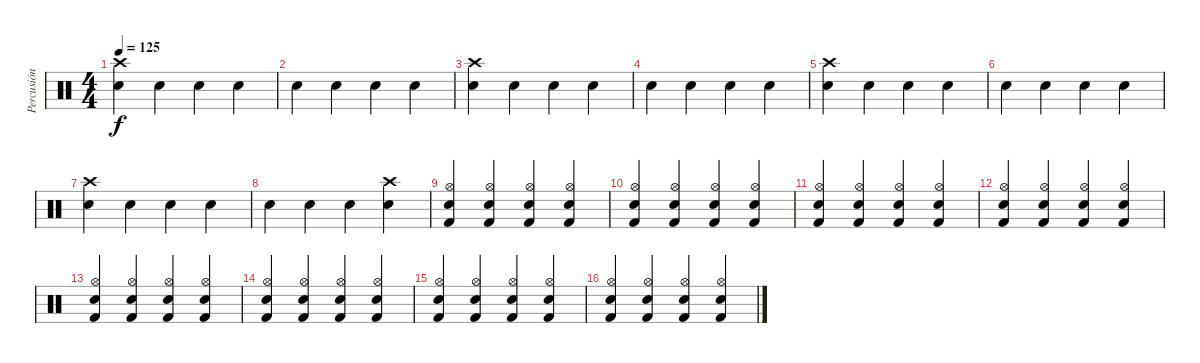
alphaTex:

\track ("Percusión" "Percusión") {instrument percussion}
\staff {score}
\articulation defaults
\ts (4 4)
\tempo 125
\clef neutral
\ks c
("Electric Snare (hit)" "Crash high (hit)").4{dy f} "Electric Snare (hit)".4 "Electric Snare (hit)".4 "Electric Snare (hit)".4 |
"Electric Snare (hit)".4 "Electric Snare (hit)".4 "Electric Snare (hit)".4 "Electric Snare (hit)".4 |
("Electric Snare (hit)" "Crash high (hit)").4 "Electric Snare (hit)".4 "Electric Snare (hit)".4 "Electric Snare (hit)".4 |
"Electric Snare (hit)".4 "Electric Snare (hit)".4 "Electric Snare (hit)".4 "Electric Snare (hit)".4 |
("Electric Snare (hit)" "Crash high (hit)").4 "Electric Snare (hit)".4 "Electric Snare (hit)".4 "Electric Snare (hit)".4 |
"Electric Snare (hit)".4 "Electric Snare (hit)".4 "Electric Snare (hit)".4 "Electric Snare (hit)".4 |
("Electric Snare (hit)" "Crash high (hit)").4 "Electric Snare (hit)".4 "Electric Snare (hit)".4 "Electric Snare (hit)".4 |
"Electric Snare (hit)".4 "Electric Snare (hit)".4 "Electric Snare (hit)".4 ("Electric Snare (hit)" "Crash high (hit)").4 |
("Electric Snare (hit)" "Hi-Hat (open)" "Kick (hit) 2").4 ("Electric Snare (hit)" "Hi-Hat (open)" "Kick (hit) 2").4 ("Electric Snare (hit)" "Hi-Hat (open)" "Kick (hit) 2").4 ("Electric Snare (hit)" "Hi-Hat (open)" "Kick (hit) 2").4 |
("Electric Snare (hit)" "Hi-Hat (open)" "Kick (hit) 2").4 ("Electric Snare (hit)" "Hi-Hat (open)" "Kick (hit) 2").4 ("Electric Snare (hit)" "Hi-Hat (open)" "Kick (hit) 2").4 ("Electric Snare (hit)" "Hi-Hat (open)" "Kick (hit) 2").4 |
("Electric Snare (hit)" "Hi-Hat (open)" "Kick (hit) 2").4 ("Electric Snare (hit)" "Hi-Hat (open)" "Kick (hit) 2").4 ("Electric Snare (hit)" "Hi-Hat (open)" "Kick (hit) 2").4 ("Electric Snare (hit)" "Hi-Hat (open)" "Kick (hit) 2").4 |
("Electric Snare (hit)" "Hi-Hat (open)" "Kick (hit) 2").4 ("Electric Snare (hit)" "Hi-Hat (open)" "Kick (hit) 2").4 ("Electric Snare (hit)" "Hi-Hat (open)" "Kick (hit) 2").4 ("Electric Snare (hit)" "Hi-Hat (open)" "Kick (hit) 2").4 |
("Electric Snare (hit)" "Hi-Hat (open)" "Kick (hit) 2").4 ("Electric Snare (hit)" "Hi-Hat (open)" "Kick (hit) 2").4 ("Electric Snare (hit)" "Hi-Hat (open)" "Kick (hit) 2").4 ("Electric Snare (hit)" "Hi-Hat (open)" "Kick (hit) 2").4 |
("Electric Snare (hit)" "Hi-Hat (open)" "Kick (hit) 2").4 ("Electric Snare (hit)" "Hi-Hat (open)" "Kick (hit) 2").4 ("Electric Snare (hit)" "Hi-Hat (open)" "Kick (hit) 2").4 ("Electric Snare (hit)" "Hi-Hat (open)" "Kick (hit) 2").4 |
("Electric Snare (hit)" "Hi-Hat (open)" "Kick (hit) 2").4 ("Electric Snare (hit)" "Hi-Hat (open)" "Kick (hit) 2").4 ("Electric Snare (hit)" "Hi-Hat (open)" "Kick (hit) 2").4 ("Electric Snare (hit)" "Hi-Hat (open)" "Kick (hit) 2").4 |
("Electric Snare (hit)" "Hi-Hat (open)" "Kick (hit) 2").4 ("Electric Snare (hit)" "Hi-Hat (open)" "Kick (hit) 2").4 ("Electric Snare (hit)" "Hi-Hat (open)" "Kick (hit) 2").4 ("Electric Snare (hit)" "Hi-Hat (open)" "Kick (hit) 2").4
